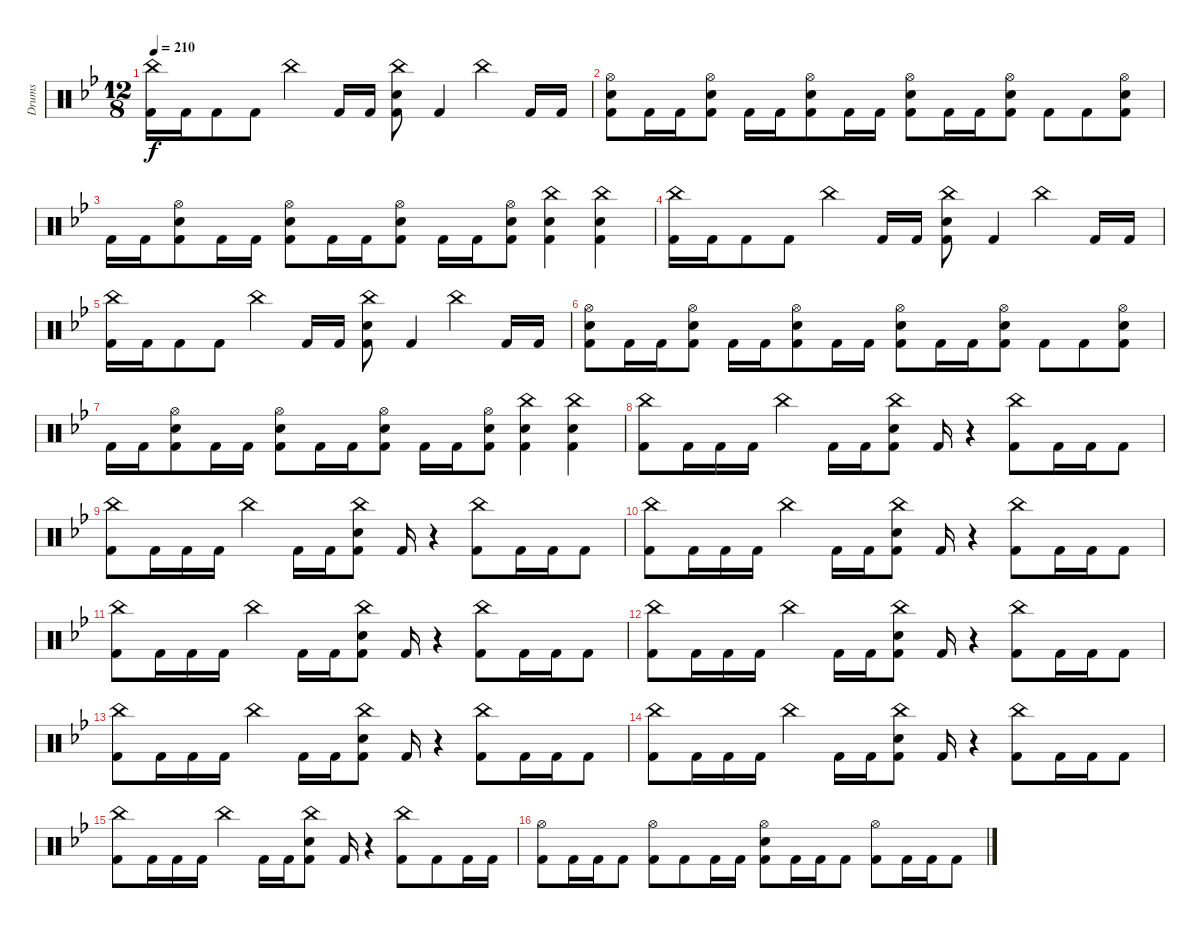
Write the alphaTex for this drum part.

\track ("Drums" "Drums") {instrument percussion}
\staff {score}
\articulation defaults
\ts (12 8)
\tempo 210
\clef neutral
\ks bb
("China (hit)" "Kick (hit) 2").16{dy f} "Kick (hit) 2".16 "Kick (hit) 2".8 "Kick (hit) 2".8 "China (hit)".4 "Kick (hit) 2".16 "Kick (hit) 2".16 ("China (hit)" "Snare (hit) 2" "Kick (hit) 2").8 "Kick (hit) 2".4 "China (hit)".4 "Kick (hit) 2".16 "Kick (hit) 2".16 |
("Hi-Hat (open)" "Snare (hit) 2" "Kick (hit) 2").8 "Kick (hit) 2".16 "Kick (hit) 2".16 ("Hi-Hat (open)" "Snare (hit) 2" "Kick (hit) 2").8 "Kick (hit) 2".16 "Kick (hit) 2".16 ("Hi-Hat (open)" "Snare (hit) 2" "Kick (hit) 2").8 "Kick (hit) 2".16 "Kick (hit) 2".16 ("Hi-Hat (open)" "Snare (hit) 2" "Kick (hit) 2").8 "Kick (hit) 2".16 "Kick (hit) 2".16 ("Hi-Hat (open)" "Snare (hit) 2" "Kick (hit) 2").8 "Kick (hit) 2".8 "Kick (hit) 2".8 ("Hi-Hat (open)" "Snare (hit) 2" "Kick (hit) 2").8 |
"Kick (hit) 2".16 "Kick (hit) 2".16 ("Hi-Hat (open)" "Snare (hit) 2" "Kick (hit) 2").8 "Kick (hit) 2".16 "Kick (hit) 2".16 ("Hi-Hat (open)" "Snare (hit) 2" "Kick (hit) 2").8 "Kick (hit) 2".16 "Kick (hit) 2".16 ("Hi-Hat (open)" "Snare (hit) 2" "Kick (hit) 2").8 "Kick (hit) 2".16 "Kick (hit) 2".16 ("Hi-Hat (open)" "Snare (hit) 2" "Kick (hit) 2").8 ("China (hit)" "Snare (hit) 2" "Kick (hit) 2").4 ("China (hit)" "Snare (hit) 2" "Kick (hit) 2").4 |
("China (hit)" "Kick (hit) 2").16 "Kick (hit) 2".16 "Kick (hit) 2".8 "Kick (hit) 2".8 "China (hit)".4 "Kick (hit) 2".16 "Kick (hit) 2".16 ("China (hit)" "Snare (hit) 2" "Kick (hit) 2").8 "Kick (hit) 2".4 "China (hit)".4 "Kick (hit) 2".16 "Kick (hit) 2".16 |
("China (hit)" "Kick (hit) 2").16 "Kick (hit) 2".16 "Kick (hit) 2".8 "Kick (hit) 2".8 "China (hit)".4 "Kick (hit) 2".16 "Kick (hit) 2".16 ("China (hit)" "Snare (hit) 2" "Kick (hit) 2").8 "Kick (hit) 2".4 "China (hit)".4 "Kick (hit) 2".16 "Kick (hit) 2".16 |
("Hi-Hat (open)" "Snare (hit) 2" "Kick (hit) 2").8 "Kick (hit) 2".16 "Kick (hit) 2".16 ("Hi-Hat (open)" "Snare (hit) 2" "Kick (hit) 2").8 "Kick (hit) 2".16 "Kick (hit) 2".16 ("Hi-Hat (open)" "Snare (hit) 2" "Kick (hit) 2").8 "Kick (hit) 2".16 "Kick (hit) 2".16 ("Hi-Hat (open)" "Snare (hit) 2" "Kick (hit) 2").8 "Kick (hit) 2".16 "Kick (hit) 2".16 ("Hi-Hat (open)" "Snare (hit) 2" "Kick (hit) 2").8 "Kick (hit) 2".8 "Kick (hit) 2".8 ("Hi-Hat (open)" "Snare (hit) 2" "Kick (hit) 2").8 |
"Kick (hit) 2".16 "Kick (hit) 2".16 ("Hi-Hat (open)" "Snare (hit) 2" "Kick (hit) 2").8 "Kick (hit) 2".16 "Kick (hit) 2".16 ("Hi-Hat (open)" "Snare (hit) 2" "Kick (hit) 2").8 "Kick (hit) 2".16 "Kick (hit) 2".16 ("Hi-Hat (open)" "Snare (hit) 2" "Kick (hit) 2").8 "Kick (hit) 2".16 "Kick (hit) 2".16 ("Hi-Hat (open)" "Snare (hit) 2" "Kick (hit) 2").8 ("China (hit)" "Snare (hit) 2" "Kick (hit) 2").4 ("China (hit)" "Snare (hit) 2" "Kick (hit) 2").4 |
("China (hit)" "Kick (hit) 2").8 "Kick (hit) 2".16 "Kick (hit) 2".16 "Kick (hit) 2".16 "China (hit)".4 "Kick (hit) 2".16 "Kick (hit) 2".16 ("China (hit)" "Snare (hit) 2" "Kick (hit) 2").8 "Kick (hit) 2".16 r.4 ("China (hit)" "Kick (hit) 2").8 "Kick (hit) 2".16 "Kick (hit) 2".16 "Kick (hit) 2".8 |
("China (hit)" "Kick (hit) 2").8 "Kick (hit) 2".16 "Kick (hit) 2".16 "Kick (hit) 2".16 "China (hit)".4 "Kick (hit) 2".16 "Kick (hit) 2".16 ("China (hit)" "Snare (hit) 2" "Kick (hit) 2").8 "Kick (hit) 2".16 r.4 ("China (hit)" "Kick (hit) 2").8 "Kick (hit) 2".16 "Kick (hit) 2".16 "Kick (hit) 2".8 |
("China (hit)" "Kick (hit) 2").8 "Kick (hit) 2".16 "Kick (hit) 2".16 "Kick (hit) 2".16 "China (hit)".4 "Kick (hit) 2".16 "Kick (hit) 2".16 ("China (hit)" "Snare (hit) 2" "Kick (hit) 2").8 "Kick (hit) 2".16 r.4 ("China (hit)" "Kick (hit) 2").8 "Kick (hit) 2".16 "Kick (hit) 2".16 "Kick (hit) 2".8 |
("China (hit)" "Kick (hit) 2").8 "Kick (hit) 2".16 "Kick (hit) 2".16 "Kick (hit) 2".16 "China (hit)".4 "Kick (hit) 2".16 "Kick (hit) 2".16 ("China (hit)" "Snare (hit) 2" "Kick (hit) 2").8 "Kick (hit) 2".16 r.4 ("China (hit)" "Kick (hit) 2").8 "Kick (hit) 2".16 "Kick (hit) 2".16 "Kick (hit) 2".8 |
("China (hit)" "Kick (hit) 2").8 "Kick (hit) 2".16 "Kick (hit) 2".16 "Kick (hit) 2".16 "China (hit)".4 "Kick (hit) 2".16 "Kick (hit) 2".16 ("China (hit)" "Snare (hit) 2" "Kick (hit) 2").8 "Kick (hit) 2".16 r.4 ("China (hit)" "Kick (hit) 2").8 "Kick (hit) 2".16 "Kick (hit) 2".16 "Kick (hit) 2".8 |
("China (hit)" "Kick (hit) 2").8 "Kick (hit) 2".16 "Kick (hit) 2".16 "Kick (hit) 2".16 "China (hit)".4 "Kick (hit) 2".16 "Kick (hit) 2".16 ("China (hit)" "Snare (hit) 2" "Kick (hit) 2").8 "Kick (hit) 2".16 r.4 ("China (hit)" "Kick (hit) 2").8 "Kick (hit) 2".16 "Kick (hit) 2".16 "Kick (hit) 2".8 |
("China (hit)" "Kick (hit) 2").8 "Kick (hit) 2".16 "Kick (hit) 2".16 "Kick (hit) 2".16 "China (hit)".4 "Kick (hit) 2".16 "Kick (hit) 2".16 ("China (hit)" "Snare (hit) 2" "Kick (hit) 2").8 "Kick (hit) 2".16 r.4 ("China (hit)" "Kick (hit) 2").8 "Kick (hit) 2".16 "Kick (hit) 2".16 "Kick (hit) 2".8 |
("China (hit)" "Kick (hit) 2").8 "Kick (hit) 2".16 "Kick (hit) 2".16 "Kick (hit) 2".16 "China (hit)".4 "Kick (hit) 2".16 "Kick (hit) 2".16 ("China (hit)" "Snare (hit) 2" "Kick (hit) 2").8 "Kick (hit) 2".16 r.4 ("China (hit)" "Kick (hit) 2").8 "Kick (hit) 2".8 "Kick (hit) 2".16 "Kick (hit) 2".16 |
("Hi-Hat (open)" "Kick (hit) 2").8 "Kick (hit) 2".16 "Kick (hit) 2".16 "Kick (hit) 2".8 ("Hi-Hat (open)" "Kick (hit) 2").8 "Kick (hit) 2".8 "Kick (hit) 2".16 "Kick (hit) 2".16 ("Hi-Hat (open)" "Snare (hit) 2" "Kick (hit) 2").8 "Kick (hit) 2".16 "Kick (hit) 2".16 "Kick (hit) 2".8 ("Hi-Hat (open)" "Kick (hit) 2").8 "Kick (hit) 2".16 "Kick (hit) 2".16 "Kick (hit) 2".8
